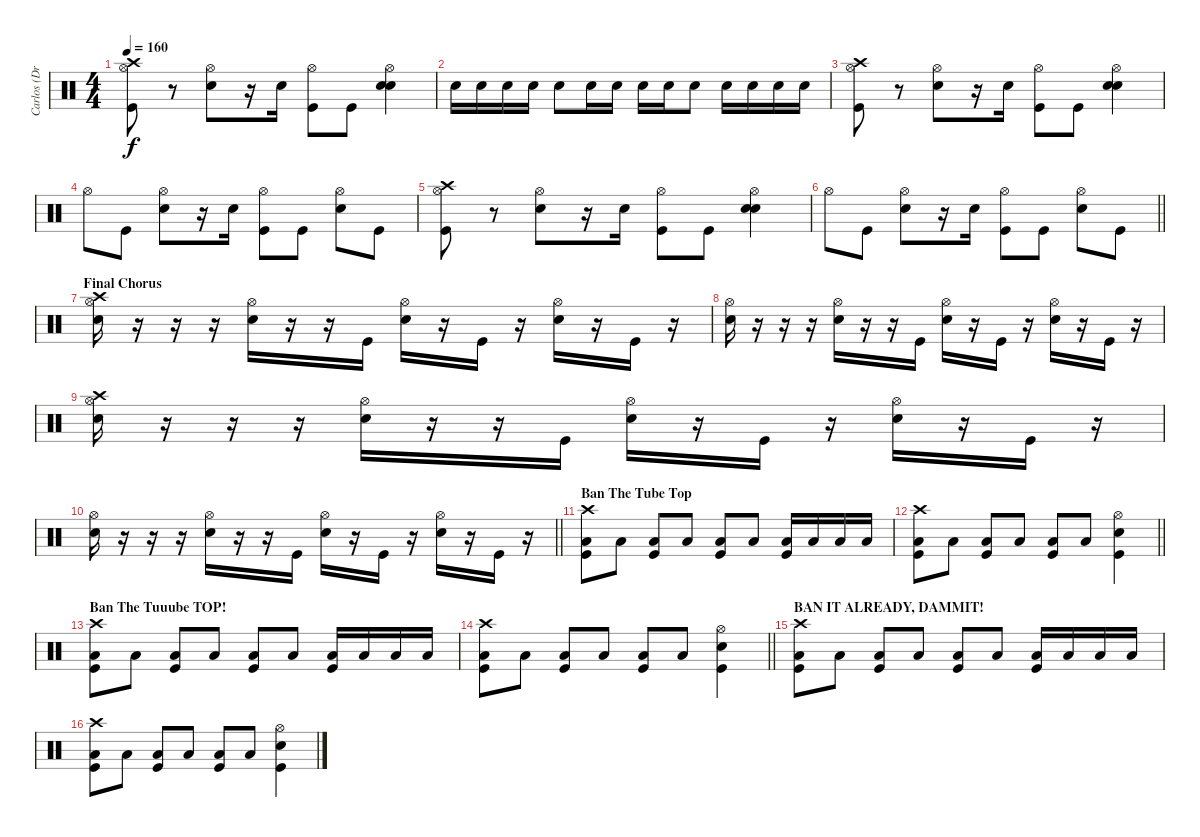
\track ("Carlos (Drums)" "Carlos (Dr") {instrument percussion}
\staff {score}
\articulation defaults
\ts (4 4)
\tempo 160
\clef neutral
\ks c
("Crash high (hit)" "Hi-Hat (open)" "Kick (hit)").8{dy f} r.8 ("Hi-Hat (open)" "Snare (hit) 2").8 r.16 "Snare (hit) 2".16 ("Hi-Hat (open)" "Kick (hit)").8 "Kick (hit)".8 ("Hi-Hat (open)" "Snare (hit) 2" "Snare (hit) 2").4 |
"Snare (hit) 2".16 "Snare (hit) 2".16 "Snare (hit) 2".16 "Snare (hit) 2".16 "Snare (hit) 2".8 "Snare (hit) 2".16 "Snare (hit) 2".16 "Snare (hit) 2".16 "Snare (hit) 2".16 "Snare (hit) 2".8 "Snare (hit) 2".16 "Snare (hit) 2".16 "Snare (hit) 2".16 "Snare (hit) 2".16 |
("Crash high (hit)" "Hi-Hat (open)" "Kick (hit)").8 r.8 ("Hi-Hat (open)" "Snare (hit) 2").8 r.16 "Snare (hit) 2".16 ("Hi-Hat (open)" "Kick (hit)").8 "Kick (hit)".8 ("Hi-Hat (open)" "Snare (hit) 2" "Snare (hit) 2").4 |
"Hi-Hat (open)".8 "Kick (hit)".8 ("Hi-Hat (open)" "Snare (hit) 2").8 r.16 "Snare (hit) 2".16 ("Hi-Hat (open)" "Kick (hit)").8 "Kick (hit)".8 ("Hi-Hat (open)" "Snare (hit) 2").8 "Kick (hit)".8 |
("Crash high (hit)" "Hi-Hat (open)" "Kick (hit)").8 r.8 ("Hi-Hat (open)" "Snare (hit) 2").8 r.16 "Snare (hit) 2".16 ("Hi-Hat (open)" "Kick (hit)").8 "Kick (hit)".8 ("Hi-Hat (open)" "Snare (hit) 2" "Snare (hit) 2").4 |
\barLineRight lightlight "Hi-Hat (open)".8 "Kick (hit)".8
("Hi-Hat (open)" "Snare (hit) 2").8 r.16 "Snare (hit) 2".16 ("Hi-Hat (open)" "Kick (hit)").8 "Kick (hit)".8 ("Hi-Hat (open)" "Snare (hit) 2").8 "Kick (hit)".8 |
\section ("" "Final Chorus")
("Crash high (hit)" "Hi-Hat (open)" "Snare (hit) 2").16 r.16 r.16 r.16 ("Hi-Hat (open)" "Snare (hit) 2").16 r.16 r.16 "Kick (hit)".16 ("Hi-Hat (open)" "Snare (hit) 2").16 r.16 "Kick (hit)".16 r.16 ("Hi-Hat (open)" "Snare (hit) 2").16 r.16 "Kick (hit)".16 r.16 |
("Hi-Hat (open)" "Snare (hit) 2").16 r.16 r.16 r.16 ("Hi-Hat (open)" "Snare (hit) 2").16 r.16 r.16 "Kick (hit)".16 ("Hi-Hat (open)" "Snare (hit) 2").16 r.16 "Kick (hit)".16 r.16 ("Hi-Hat (open)" "Snare (hit) 2").16 r.16 "Kick (hit)".16 r.16 |
("Crash high (hit)" "Hi-Hat (open)" "Snare (hit) 2").16 r.16 r.16 r.16 ("Hi-Hat (open)" "Snare (hit) 2").16 r.16 r.16 "Kick (hit)".16 ("Hi-Hat (open)" "Snare (hit) 2").16 r.16 "Kick (hit)".16 r.16 ("Hi-Hat (open)" "Snare (hit) 2").16 r.16 "Kick (hit)".16 r.16 |
\barLineRight lightlight
("Hi-Hat (open)" "Snare (hit) 2").16 r.16 r.16 r.16 ("Hi-Hat (open)" "Snare (hit) 2").16 r.16 r.16 "Kick (hit)".16 ("Hi-Hat (open)" "Snare (hit) 2").16 r.16 "Kick (hit)".16 r.16 ("Hi-Hat (open)" "Snare (hit) 2").16 r.16 "Kick (hit)".16 r.16 |
\section ("" "Ban The Tube Top")
("Crash high (hit)" "Low Floor Tom (hit)" "Kick (hit)").8 "Low Floor Tom (hit)".8 ("Low Floor Tom (hit)" "Kick (hit)").8 "Low Floor Tom (hit)".8 ("Low Floor Tom (hit)" "Kick (hit)").8 "Low Floor Tom (hit)".8 ("Low Floor Tom (hit)" "Kick (hit)").16 "Low Floor Tom (hit)".16 "Low Floor Tom (hit)".16 "Low Floor Tom (hit)".16 |
\barLineRight lightlight
("Crash high (hit)" "Low Floor Tom (hit)" "Kick (hit)").8 "Low Floor Tom (hit)".8 ("Low Floor Tom (hit)" "Kick (hit)").8 "Low Floor Tom (hit)".8 ("Low Floor Tom (hit)" "Kick (hit)").8 "Low Floor Tom (hit)".8 ("Hi-Hat (open)" "Snare (hit) 2" "Kick (hit)").4 |
\section ("" "Ban The Tuuube TOP!")
("Crash high (hit)" "Low Floor Tom (hit)" "Kick (hit)").8 "Low Floor Tom (hit)".8 ("Low Floor Tom (hit)" "Kick (hit)").8 "Low Floor Tom (hit)".8 ("Low Floor Tom (hit)" "Kick (hit)").8 "Low Floor Tom (hit)".8 ("Low Floor Tom (hit)" "Kick (hit)").16 "Low Floor Tom (hit)".16 "Low Floor Tom (hit)".16 "Low Floor Tom (hit)".16 |
\barLineRight lightlight
("Crash high (hit)" "Low Floor Tom (hit)" "Kick (hit)").8 "Low Floor Tom (hit)".8 ("Low Floor Tom (hit)" "Kick (hit)").8 "Low Floor Tom (hit)".8 ("Low Floor Tom (hit)" "Kick (hit)").8 "Low Floor Tom (hit)".8 ("Hi-Hat (open)" "Snare (hit) 2" "Kick (hit)").4 |
\section ("" "BAN IT ALREADY, DAMMIT!")
("Crash high (hit)" "Low Floor Tom (hit)" "Kick (hit)").8 "Low Floor Tom (hit)".8 ("Low Floor Tom (hit)" "Kick (hit)").8 "Low Floor Tom (hit)".8 ("Low Floor Tom (hit)" "Kick (hit)").8 "Low Floor Tom (hit)".8 ("Low Floor Tom (hit)" "Kick (hit)").16 "Low Floor Tom (hit)".16 "Low Floor Tom (hit)".16 "Low Floor Tom (hit)".16 |
("Crash high (hit)" "Low Floor Tom (hit)" "Kick (hit)").8 "Low Floor Tom (hit)".8 ("Low Floor Tom (hit)" "Kick (hit)").8 "Low Floor Tom (hit)".8 ("Low Floor Tom (hit)" "Kick (hit)").8 "Low Floor Tom (hit)".8 ("Hi-Hat (open)" "Snare (hit) 2" "Kick (hit)").4
